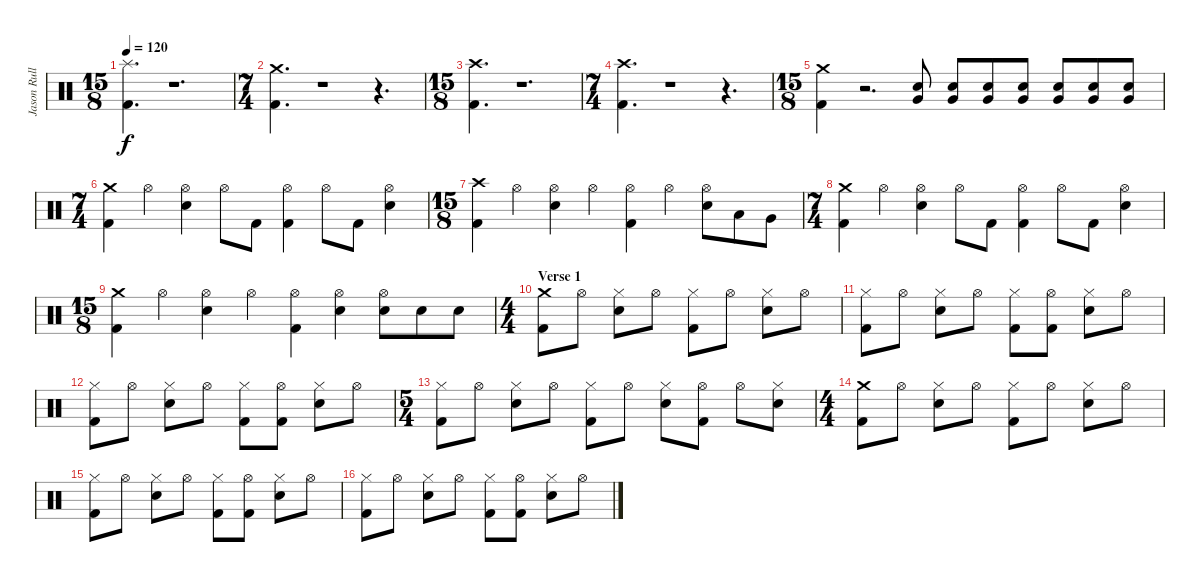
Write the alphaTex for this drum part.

\track ("Jason Rullo" "Jason Rull") {instrument percussion}
\staff {score}
\articulation defaults
\ts (15 8)
\tempo 120
\clef neutral
\ks c
("Splash (hit)" "Kick (hit) 2").4{d dy f} r.1{d} |
\ts (7 4)
("Crash medium (hit)" "Kick (hit) 2").4{d} r.1 r.4{d} |
\ts (15 8)
("Crash high (hit)" "Kick (hit) 2").4{d} r.1{d} |
\ts (7 4)
("Crash high (hit)" "Kick (hit) 2").4{d} r.1 r.4{d} |
\ts (15 8)
("Crash medium (hit)" "Kick (hit) 2").4 r.2{d} ("Electric Snare (hit)" "Very Low Tom (hit)").8{volume 0} ("Very Low Tom (hit)" "Electric Snare (hit)").8{volume 2} ("Very Low Tom (hit)" "Electric Snare (hit)").8{volume 4} ("Very Low Tom (hit)" "Electric Snare (hit)").8{volume 7} ("Very Low Tom (hit)" "Electric Snare (hit)").8{volume 9} ("Very Low Tom (hit)" "Electric Snare (hit)").8{volume 11} ("Very Low Tom (hit)" "Electric Snare (hit)").8{volume 14} |
\ts (7 4)
("Crash medium (hit)" "Kick (hit) 2").4{volume 16} "Hi-Hat (open)".4 ("Hi-Hat (open)" "Electric Snare (hit)").4 "Hi-Hat (open)".8 "Kick (hit) 2".8 ("Hi-Hat (open)" "Kick (hit) 2").4 "Hi-Hat (open)".8 "Kick (hit) 2".8 ("Hi-Hat (open)" "Electric Snare (hit)").4 |
\ts (15 8)
("Crash high (hit)" "Kick (hit) 2").4 "Hi-Hat (open)".4 ("Hi-Hat (open)" "Electric Snare (hit)").4 "Hi-Hat (open)".4 ("Hi-Hat (open)" "Kick (hit) 2").4 "Hi-Hat (open)".4 ("Hi-Hat (open)" "Electric Snare (hit)").8 "Low Tom (hit)".8 "Very Low Tom (hit)".8 |
\ts (7 4)
("Crash medium (hit)" "Kick (hit) 2").4 "Hi-Hat (open)".4 ("Hi-Hat (open)" "Electric Snare (hit)").4 "Hi-Hat (open)".8 "Kick (hit) 2".8 ("Hi-Hat (open)" "Kick (hit) 2").4 "Hi-Hat (open)".8 "Kick (hit) 2".8 ("Hi-Hat (open)" "Electric Snare (hit)").4 |
\ts (15 8)
("Crash medium (hit)" "Kick (hit) 2").4 "Hi-Hat (open)".4 ("Hi-Hat (open)" "Electric Snare (hit)").4 "Hi-Hat (open)".4 ("Hi-Hat (open)" "Kick (hit) 2").4 ("Electric Snare (hit)" "Hi-Hat (open)").4 ("Hi-Hat (open)" "Electric Snare (hit)").8 "Electric Snare (hit)".8 "Electric Snare (hit)".8 |
\ts (4 4)
\section ("" "Verse 1")
("Crash medium (hit)" "Kick (hit) 2").8 "Hi-Hat (open)".8 ("Electric Snare (hit)" "Hi-Hat (closed)").8 "Hi-Hat (open)".8 ("Kick (hit) 2" "Hi-Hat (closed)").8 "Hi-Hat (open)".8 ("Electric Snare (hit)" "Hi-Hat (closed)").8 "Hi-Hat (open)".8 |
("Hi-Hat (closed)" "Kick (hit) 2").8 "Hi-Hat (open)".8 ("Electric Snare (hit)" "Hi-Hat (closed)").8 "Hi-Hat (open)".8 ("Kick (hit) 2" "Hi-Hat (closed)").8 ("Kick (hit) 2" "Hi-Hat (open)").8 ("Electric Snare (hit)" "Hi-Hat (closed)").8 "Hi-Hat (open)".8 |
("Hi-Hat (closed)" "Kick (hit) 2").8 "Hi-Hat (open)".8 ("Electric Snare (hit)" "Hi-Hat (closed)").8 "Hi-Hat (open)".8 ("Kick (hit) 2" "Hi-Hat (closed)").8 ("Kick (hit) 2" "Hi-Hat (open)").8 ("Electric Snare (hit)" "Hi-Hat (closed)").8 "Hi-Hat (open)".8 |
\ts (5 4)
("Hi-Hat (closed)" "Kick (hit) 2").8 "Hi-Hat (open)".8 ("Electric Snare (hit)" "Hi-Hat (closed)").8 "Hi-Hat (open)".8 ("Kick (hit) 2" "Hi-Hat (closed)").8 "Hi-Hat (open)".8 ("Electric Snare (hit)" "Hi-Hat (closed)").8 ("Kick (hit) 2" "Hi-Hat (open)").8 "Hi-Hat (open)".8 ("Hi-Hat (closed)" "Electric Snare (hit)").8 |
\ts (4 4)
("Crash medium (hit)" "Kick (hit) 2").8 "Hi-Hat (open)".8 ("Electric Snare (hit)" "Hi-Hat (closed)").8 "Hi-Hat (open)".8 ("Kick (hit) 2" "Hi-Hat (closed)").8 "Hi-Hat (open)".8 ("Electric Snare (hit)" "Hi-Hat (closed)").8 "Hi-Hat (open)".8 |
("Hi-Hat (closed)" "Kick (hit) 2").8 "Hi-Hat (open)".8 ("Electric Snare (hit)" "Hi-Hat (closed)").8 "Hi-Hat (open)".8 ("Kick (hit) 2" "Hi-Hat (closed)").8 ("Kick (hit) 2" "Hi-Hat (open)").8 ("Electric Snare (hit)" "Hi-Hat (closed)").8 "Hi-Hat (open)".8 |
("Hi-Hat (closed)" "Kick (hit) 2").8 "Hi-Hat (open)".8 ("Electric Snare (hit)" "Hi-Hat (closed)").8 "Hi-Hat (open)".8 ("Kick (hit) 2" "Hi-Hat (closed)").8 ("Kick (hit) 2" "Hi-Hat (open)").8 ("Electric Snare (hit)" "Hi-Hat (closed)").8 "Hi-Hat (open)".8
